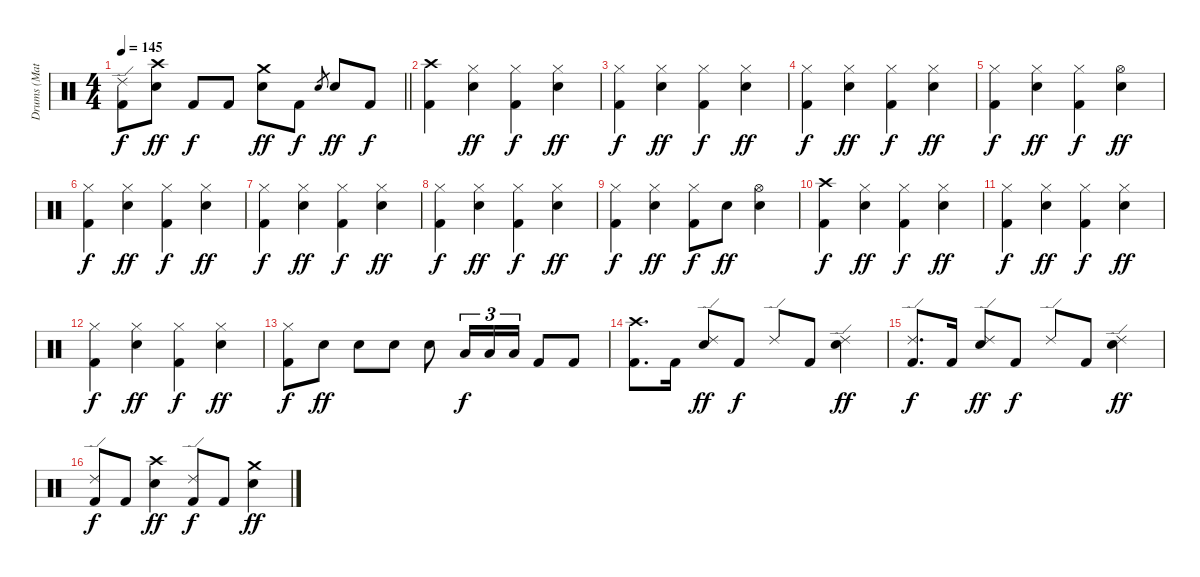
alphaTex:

\track ("Drums (Matt)" "Drums (Mat") {instrument percussion}
\staff {score}
\articulation defaults
\ts (4 4)
\tempo 145
\clef neutral
\barLineRight lightlight
\ks c
("Ride (edge) 2" "Kick (hit) 2").8{dy f} ("Crash high (hit)" "Snare (hit) 2").8{dy ff} "Kick (hit) 2".8{dy f} "Kick (hit) 2".8 ("Crash medium (hit)" "Snare (hit) 2").8{dy ff} "Kick (hit) 2".8{dy f} "Snare (hit) 2".8{gr} "Snare (hit) 2".8{dy ff} "Kick (hit) 2".8{dy f} |
("Crash high (hit)" "Kick (hit) 2").4 ("Hi-Hat (closed)" "Snare (hit) 2").4{dy ff} ("Hi-Hat (closed)" "Kick (hit) 2").4{dy f} ("Hi-Hat (closed)" "Snare (hit) 2").4{dy ff} |
("Hi-Hat (closed)" "Kick (hit) 2").4{dy f} ("Hi-Hat (closed)" "Snare (hit) 2").4{dy ff} ("Hi-Hat (closed)" "Kick (hit) 2").4{dy f} ("Hi-Hat (closed)" "Snare (hit) 2").4{dy ff} |
("Hi-Hat (closed)" "Kick (hit) 2").4{dy f} ("Hi-Hat (closed)" "Snare (hit) 2").4{dy ff} ("Hi-Hat (closed)" "Kick (hit) 2").4{dy f} ("Hi-Hat (closed)" "Snare (hit) 2").4{dy ff} |
("Hi-Hat (closed)" "Kick (hit) 2").4{dy f} ("Hi-Hat (closed)" "Snare (hit) 2").4{dy ff} ("Hi-Hat (closed)" "Kick (hit) 2").4{dy f} ("Hi-Hat (open)" "Snare (hit) 2").4{dy ff} |
("Hi-Hat (closed)" "Kick (hit) 2").4{dy f} ("Hi-Hat (closed)" "Snare (hit) 2").4{dy ff} ("Hi-Hat (closed)" "Kick (hit) 2").4{dy f} ("Hi-Hat (closed)" "Snare (hit) 2").4{dy ff} |
("Hi-Hat (closed)" "Kick (hit) 2").4{dy f} ("Hi-Hat (closed)" "Snare (hit) 2").4{dy ff} ("Hi-Hat (closed)" "Kick (hit) 2").4{dy f} ("Hi-Hat (closed)" "Snare (hit) 2").4{dy ff} |
("Hi-Hat (closed)" "Kick (hit) 2").4{dy f} ("Hi-Hat (closed)" "Snare (hit) 2").4{dy ff} ("Hi-Hat (closed)" "Kick (hit) 2").4{dy f} ("Hi-Hat (closed)" "Snare (hit) 2").4{dy ff} |
("Hi-Hat (closed)" "Kick (hit) 2").4{dy f} ("Hi-Hat (closed)" "Snare (hit) 2").4{dy ff} ("Hi-Hat (closed)" "Kick (hit) 2").8{dy f} "Snare (hit) 2".8{dy ff} ("Hi-Hat (open)" "Snare (hit) 2").4 |
("Crash high (hit)" "Kick (hit) 2").4{dy f} ("Hi-Hat (closed)" "Snare (hit) 2").4{dy ff} ("Hi-Hat (closed)" "Kick (hit) 2").4{dy f} ("Hi-Hat (closed)" "Snare (hit) 2").4{dy ff} |
("Hi-Hat (closed)" "Kick (hit) 2").4{dy f} ("Hi-Hat (closed)" "Snare (hit) 2").4{dy ff} ("Hi-Hat (closed)" "Kick (hit) 2").4{dy f} ("Hi-Hat (closed)" "Snare (hit) 2").4{dy ff} |
("Hi-Hat (closed)" "Kick (hit) 2").4{dy f} ("Hi-Hat (closed)" "Snare (hit) 2").4{dy ff} ("Hi-Hat (closed)" "Kick (hit) 2").4{dy f} ("Hi-Hat (closed)" "Snare (hit) 2").4{dy ff} |
("Hi-Hat (closed)" "Kick (hit) 2").8{dy f} "Snare (hit) 2".8{dy ff} "Snare (hit) 2".8 "Snare (hit) 2".8 "Snare (hit) 2".8 "Low Tom (hit)".16{tu (3 2) dy f} "Low Tom (hit)".16{tu (3 2)} "Low Tom (hit)".16{tu (3 2)} "Kick (hit) 2".8 "Kick (hit) 2".8 |
("Crash high (hit)" "Kick (hit) 2").8{d} "Kick (hit) 2".16 ("Ride (edge) 2" "Snare (hit) 2").8{dy ff} "Kick (hit) 2".8{dy f} "Ride (edge) 2".8 "Kick (hit) 2".8 ("Ride (edge) 2" "Snare (hit) 2").4{dy ff} |
("Ride (edge) 2" "Kick (hit) 2").8{d dy f} "Kick (hit) 2".16 ("Ride (edge) 2" "Snare (hit) 2").8{dy ff} "Kick (hit) 2".8{dy f} "Ride (edge) 2".8 "Kick (hit) 2".8 ("Ride (edge) 2" "Snare (hit) 2").4{dy ff} |
("Ride (edge) 2" "Kick (hit) 2").8{dy f} "Kick (hit) 2".8 ("Crash high (hit)" "Snare (hit) 2").4{dy ff} ("Ride (edge) 2" "Kick (hit) 2").8{dy f} "Kick (hit) 2".8 ("Crash medium (hit)" "Snare (hit) 2").4{dy ff}
